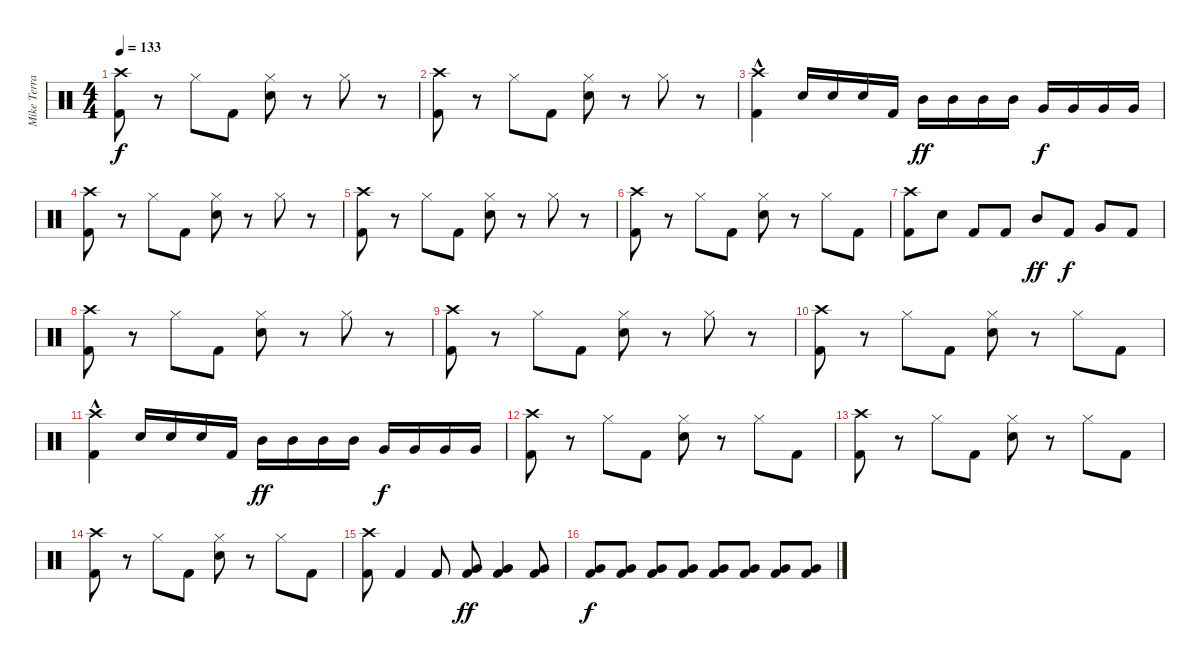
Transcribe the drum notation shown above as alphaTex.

\track ("Mike Terrana" "Mike Terra") {instrument percussion}
\staff {score}
\articulation defaults
\ts (4 4)
\tempo 133
\clef neutral
\ks c
("Crash high (hit)" "Kick (hit) 2").8{dy f} r.8 "Hi-Hat (closed)".8 "Kick (hit) 2".8 ("Hi-Hat (closed)" "Snare (hit) 2").8 r.8 "Hi-Hat (closed)".8 r.8 |
("Crash high (hit)" "Kick (hit) 2").8 r.8 "Hi-Hat (closed)".8 "Kick (hit) 2".8 ("Hi-Hat (closed)" "Snare (hit) 2").8 r.8 "Hi-Hat (closed)".8 r.8 |
("Crash high (hit)"{hac} "Kick (hit) 2").4 "Snare (hit) 2".16 "Snare (hit) 2".16 "Snare (hit) 2".16 "Kick (hit) 2".16 "Mid Tom (hit)".16{dy ff} "Mid Tom (hit)".16 "Mid Tom (hit)".16 "Mid Tom (hit)".16 "Very Low Tom (hit)".16{dy f} "Very Low Tom (hit)".16 "Very Low Tom (hit)".16 "Very Low Tom (hit)".16 |
("Crash high (hit)" "Kick (hit) 2").8 r.8 "Hi-Hat (closed)".8 "Kick (hit) 2".8 ("Hi-Hat (closed)" "Snare (hit) 2").8 r.8 "Hi-Hat (closed)".8 r.8 |
("Crash high (hit)" "Kick (hit) 2").8 r.8 "Hi-Hat (closed)".8 "Kick (hit) 2".8 ("Hi-Hat (closed)" "Snare (hit) 2").8 r.8 "Hi-Hat (closed)".8 r.8 |
("Crash high (hit)" "Kick (hit) 2").8 r.8 "Hi-Hat (closed)".8 "Kick (hit) 2".8 ("Hi-Hat (closed)" "Snare (hit) 2").8 r.8 "Hi-Hat (closed)".8 "Kick (hit) 2".8 |
("Crash high (hit)" "Kick (hit) 2").8 "Snare (hit) 2".8 "Kick (hit) 2".8 "Kick (hit) 2".8 "Mid Tom (hit)".8{dy ff} "Kick (hit) 2".8{dy f} "Very Low Tom (hit)".8 "Kick (hit) 2".8 |
("Crash high (hit)" "Kick (hit) 2").8 r.8 "Hi-Hat (closed)".8 "Kick (hit) 2".8 ("Hi-Hat (closed)" "Snare (hit) 2").8 r.8 "Hi-Hat (closed)".8 r.8 |
("Crash high (hit)" "Kick (hit) 2").8 r.8 "Hi-Hat (closed)".8 "Kick (hit) 2".8 ("Hi-Hat (closed)" "Snare (hit) 2").8 r.8 "Hi-Hat (closed)".8 r.8 |
("Crash high (hit)" "Kick (hit) 2").8 r.8 "Hi-Hat (closed)".8 "Kick (hit) 2".8 ("Hi-Hat (closed)" "Snare (hit) 2").8 r.8 "Hi-Hat (closed)".8 "Kick (hit) 2".8 |
("Crash high (hit)"{hac} "Kick (hit) 2").4 "Snare (hit) 2".16 "Snare (hit) 2".16 "Snare (hit) 2".16 "Kick (hit) 2".16 "Mid Tom (hit)".16{dy ff} "Mid Tom (hit)".16 "Mid Tom (hit)".16 "Mid Tom (hit)".16 "Very Low Tom (hit)".16{dy f} "Very Low Tom (hit)".16 "Very Low Tom (hit)".16 "Very Low Tom (hit)".16 |
("Crash high (hit)" "Kick (hit) 2").8 r.8 "Hi-Hat (closed)".8 "Kick (hit) 2".8 ("Hi-Hat (closed)" "Snare (hit) 2").8 r.8 "Hi-Hat (closed)".8 "Kick (hit) 2".8 |
("Crash high (hit)" "Kick (hit) 2").8 r.8 "Hi-Hat (closed)".8 "Kick (hit) 2".8 ("Hi-Hat (closed)" "Snare (hit) 2").8 r.8 "Hi-Hat (closed)".8 "Kick (hit) 2".8 |
("Crash high (hit)" "Kick (hit) 2").8 r.8 "Hi-Hat (closed)".8 "Kick (hit) 2".8 ("Hi-Hat (closed)" "Snare (hit) 2").8 r.8 "Hi-Hat (closed)".8 "Kick (hit) 2".8 |
("Crash high (hit)" "Kick (hit) 2").8 "Kick (hit) 2".4 "Kick (hit) 2".8 ("Very Low Tom (hit)" "Kick (hit) 2").8{dy ff} ("Very Low Tom (hit)" "Kick (hit) 2").4 ("Very Low Tom (hit)" "Kick (hit) 2").8 |
("Very Low Tom (hit)" "Kick (hit) 2").8{dy f} ("Very Low Tom (hit)" "Kick (hit) 2").8 ("Very Low Tom (hit)" "Kick (hit) 2").8 ("Very Low Tom (hit)" "Kick (hit) 2").8 ("Very Low Tom (hit)" "Kick (hit) 2").8 ("Very Low Tom (hit)" "Kick (hit) 2").8 ("Very Low Tom (hit)" "Kick (hit) 2").8 ("Very Low Tom (hit)" "Kick (hit) 2").8
